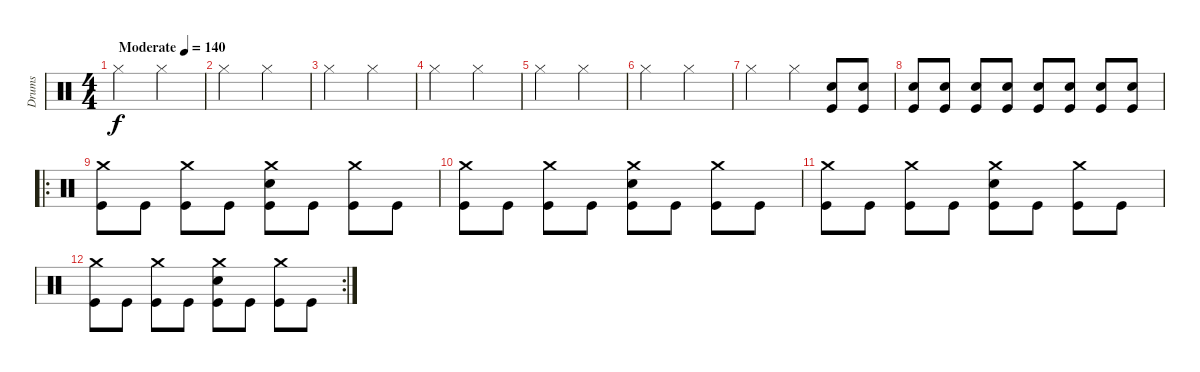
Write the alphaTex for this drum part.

\track ("Drums" "Drums") {instrument percussion}
\staff {score}
\articulation defaults
\ts (4 4)
\tempo (140 "Moderate")
\clef neutral
\ks c "Hi-Hat (closed)".2{dy f} "Hi-Hat (closed)".2
|
"Hi-Hat (closed)".2 "Hi-Hat (closed)".2 |
"Hi-Hat (closed)".2 "Hi-Hat (closed)".2 |
"Hi-Hat (closed)".2 "Hi-Hat (closed)".2 |
"Hi-Hat (closed)".2 "Hi-Hat (closed)".2 |
"Hi-Hat (closed)".2 "Hi-Hat (closed)".2 |
"Hi-Hat (closed)".2 "Hi-Hat (closed)".4 ("Snare (hit) 2" "Kick (hit)").8{volume 0} ("Snare (hit) 2" "Kick (hit)").8{volume 13} |
("Snare (hit) 2" "Kick (hit)").8 ("Snare (hit) 2" "Kick (hit)").8 ("Snare (hit) 2" "Kick (hit)").8 ("Snare (hit) 2" "Kick (hit)").8 ("Snare (hit) 2" "Kick (hit)").8 ("Snare (hit) 2" "Kick (hit)").8 ("Snare (hit) 2" "Kick (hit)").8 ("Snare (hit) 2" "Kick (hit)").8 |
\ro
("Crash medium (hit)" "Kick (hit)").8 "Kick (hit)".8 ("Crash medium (hit)" "Kick (hit)").8 "Kick (hit)".8 ("Crash medium (hit)" "Snare (hit) 2" "Kick (hit)").8 "Kick (hit)".8 ("Crash medium (hit)" "Kick (hit)").8 "Kick (hit)".8 |
("Crash medium (hit)" "Kick (hit)").8 "Kick (hit)".8 ("Crash medium (hit)" "Kick (hit)").8 "Kick (hit)".8 ("Crash medium (hit)" "Snare (hit) 2" "Kick (hit)").8 "Kick (hit)".8 ("Crash medium (hit)" "Kick (hit)").8 "Kick (hit)".8 |
("Crash medium (hit)" "Kick (hit)").8 "Kick (hit)".8 ("Crash medium (hit)" "Kick (hit)").8 "Kick (hit)".8 ("Crash medium (hit)" "Snare (hit) 2" "Kick (hit)").8 "Kick (hit)".8 ("Crash medium (hit)" "Kick (hit)").8 "Kick (hit)".8 |
\rc 2
("Crash medium (hit)" "Kick (hit)").8 "Kick (hit)".8 ("Crash medium (hit)" "Kick (hit)").8 "Kick (hit)".8 ("Crash medium (hit)" "Snare (hit) 2" "Kick (hit)").8 "Kick (hit)".8 ("Crash medium (hit)" "Kick (hit)").8 "Kick (hit)".8
